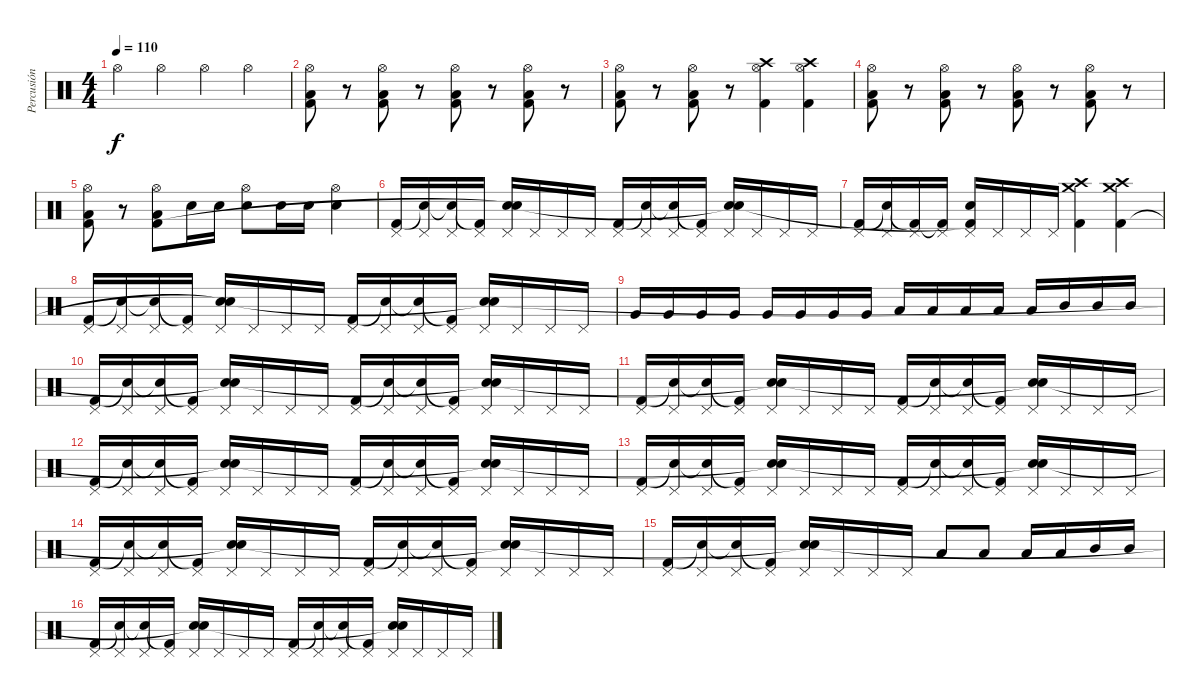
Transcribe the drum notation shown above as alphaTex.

\track ("Percusión" "Percusión") {instrument percussion}
\staff {score}
\articulation defaults
\ts (4 4)
\tempo 110
\clef neutral
\ks c "Hi-Hat (open)".4{dy f} "Hi-Hat (open)".4 "Hi-Hat (open)".4 "Hi-Hat (open)".4
|
("Hi-Hat (open)" "Low Floor Tom (hit)" "Kick (hit) 2").8 r.8 ("Hi-Hat (open)" "Low Floor Tom (hit)" "Kick (hit) 2").8 r.8 ("Hi-Hat (open)" "Low Floor Tom (hit)" "Kick (hit) 2").8 r.8 ("Hi-Hat (open)" "Low Floor Tom (hit)" "Kick (hit) 2").8 r.8 |
("Hi-Hat (open)" "Low Floor Tom (hit)" "Kick (hit) 2").8 r.8 ("Hi-Hat (open)" "Low Floor Tom (hit)" "Kick (hit) 2").8 r.8 ("Crash high (hit)" "Hi-Hat (open)" "Kick (hit) 2").4 ("Crash high (hit)" "Hi-Hat (open)" "Kick (hit) 2").4 |
("Hi-Hat (open)" "Low Floor Tom (hit)" "Kick (hit) 2").8 r.8 ("Hi-Hat (open)" "Low Floor Tom (hit)" "Kick (hit) 2").8 r.8 ("Hi-Hat (open)" "Low Floor Tom (hit)" "Kick (hit) 2").8 r.8 ("Hi-Hat (open)" "Low Floor Tom (hit)" "Kick (hit) 2").8 r.8 |
("Hi-Hat (open)" "Low Floor Tom (hit)" "Kick (hit) 2").8 r.8 ("Hi-Hat (open)" "Low Floor Tom (hit)" "Kick (hit) 2").8 "Electric Snare (hit)".16 "Electric Snare (hit)".16 ("Electric Snare (hit)" "Hi-Hat (open)").8 "Electric Snare (hit)".16 "Electric Snare (hit)".16 ("Electric Snare (hit)" "Hi-Hat (open)").4 |
("Pedal Hi-Hat (hit)" "Kick (hit) 2").16 ("Pedal Hi-Hat (hit)" "Snare (hit)"{t}).16 ("Pedal Hi-Hat (hit)" "Snare (hit)"{t}).16 ("Pedal Hi-Hat (hit)" "Kick (hit) 2"{t}).16 ("Pedal Hi-Hat (hit)" "Electric Snare (hit)" "Snare (hit)"{t}).16 "Pedal Hi-Hat (hit)".16 "Pedal Hi-Hat (hit)".16 "Pedal Hi-Hat (hit)".16 ("Pedal Hi-Hat (hit)" "Kick (hit) 2").16 ("Pedal Hi-Hat (hit)" "Snare (hit)"{t}).16 ("Pedal Hi-Hat (hit)" "Snare (hit)"{t}).16 ("Pedal Hi-Hat (hit)" "Kick (hit) 2"{t}).16 ("Pedal Hi-Hat (hit)" "Electric Snare (hit)" "Snare (hit)"{t}).16 "Pedal Hi-Hat (hit)".16 "Pedal Hi-Hat (hit)".16 "Pedal Hi-Hat (hit)".16 |
("Pedal Hi-Hat (hit)" "Kick (hit) 2").16 ("Pedal Hi-Hat (hit)" "Snare (hit)"{t}).16 ("Pedal Hi-Hat (hit)" "Kick (hit) 2"{t}).16 ("Pedal Hi-Hat (hit)" "Kick (hit) 2"{t}).16 ("Pedal Hi-Hat (hit)" "Electric Snare (hit)" "Kick (hit) 2"{t}).16 "Pedal Hi-Hat (hit)".16 "Pedal Hi-Hat (hit)".16 "Pedal Hi-Hat (hit)".16 ("Crash high (hit)" "Crash medium (hit)" "Kick (hit) 2").4 ("Crash high (hit)" "Crash medium (hit)" "Kick (hit) 2").4 |
("Pedal Hi-Hat (hit)" "Kick (hit) 2").16 ("Pedal Hi-Hat (hit)" "Snare (hit)"{t}).16 ("Pedal Hi-Hat (hit)" "Snare (hit)"{t}).16 ("Pedal Hi-Hat (hit)" "Kick (hit) 2"{t}).16 ("Pedal Hi-Hat (hit)" "Electric Snare (hit)" "Snare (hit)"{t}).16 "Pedal Hi-Hat (hit)".16 "Pedal Hi-Hat (hit)".16 "Pedal Hi-Hat (hit)".16 ("Pedal Hi-Hat (hit)" "Kick (hit) 2").16 ("Pedal Hi-Hat (hit)" "Snare (hit)"{t}).16 ("Pedal Hi-Hat (hit)" "Snare (hit)"{t}).16 ("Pedal Hi-Hat (hit)" "Kick (hit) 2"{t}).16 ("Pedal Hi-Hat (hit)" "Electric Snare (hit)" "Snare (hit)"{t}).16 "Pedal Hi-Hat (hit)".16 "Pedal Hi-Hat (hit)".16 "Pedal Hi-Hat (hit)".16 |
"Very Low Tom (hit)".16 "Very Low Tom (hit)".16 "Very Low Tom (hit)".16 "Very Low Tom (hit)".16 "Very Low Tom (hit)".16 "Very Low Tom (hit)".16 "Very Low Tom (hit)".16 "Very Low Tom (hit)".16 "Low Tom (hit)".16 "Low Tom (hit)".16 "Low Tom (hit)".16 "Low Tom (hit)".16 "Low Tom (hit)".16 "Mid Tom (hit)".16 "Mid Tom (hit)".16 "Mid Tom (hit)".16 |
("Pedal Hi-Hat (hit)" "Kick (hit) 2").16 ("Pedal Hi-Hat (hit)" "Snare (hit)"{t}).16 ("Pedal Hi-Hat (hit)" "Snare (hit)"{t}).16 ("Pedal Hi-Hat (hit)" "Kick (hit) 2"{t}).16 ("Pedal Hi-Hat (hit)" "Electric Snare (hit)" "Snare (hit)"{t}).16 "Pedal Hi-Hat (hit)".16 "Pedal Hi-Hat (hit)".16 "Pedal Hi-Hat (hit)".16 ("Pedal Hi-Hat (hit)" "Kick (hit) 2").16 ("Pedal Hi-Hat (hit)" "Snare (hit)"{t}).16 ("Pedal Hi-Hat (hit)" "Snare (hit)"{t}).16 ("Pedal Hi-Hat (hit)" "Kick (hit) 2"{t}).16 ("Pedal Hi-Hat (hit)" "Electric Snare (hit)" "Snare (hit)"{t}).16 "Pedal Hi-Hat (hit)".16 "Pedal Hi-Hat (hit)".16 "Pedal Hi-Hat (hit)".16 |
("Pedal Hi-Hat (hit)" "Kick (hit) 2").16 ("Pedal Hi-Hat (hit)" "Snare (hit)"{t}).16 ("Pedal Hi-Hat (hit)" "Snare (hit)"{t}).16 ("Pedal Hi-Hat (hit)" "Kick (hit) 2"{t}).16 ("Pedal Hi-Hat (hit)" "Electric Snare (hit)" "Snare (hit)"{t}).16 "Pedal Hi-Hat (hit)".16 "Pedal Hi-Hat (hit)".16 "Pedal Hi-Hat (hit)".16 ("Pedal Hi-Hat (hit)" "Kick (hit) 2").16 ("Pedal Hi-Hat (hit)" "Snare (hit)"{t}).16 ("Pedal Hi-Hat (hit)" "Snare (hit)"{t}).16 ("Pedal Hi-Hat (hit)" "Kick (hit) 2"{t}).16 ("Pedal Hi-Hat (hit)" "Electric Snare (hit)" "Snare (hit)"{t}).16 "Pedal Hi-Hat (hit)".16 "Pedal Hi-Hat (hit)".16 "Pedal Hi-Hat (hit)".16 |
("Pedal Hi-Hat (hit)" "Kick (hit) 2").16 ("Pedal Hi-Hat (hit)" "Snare (hit)"{t}).16 ("Pedal Hi-Hat (hit)" "Snare (hit)"{t}).16 ("Pedal Hi-Hat (hit)" "Kick (hit) 2"{t}).16 ("Pedal Hi-Hat (hit)" "Electric Snare (hit)" "Snare (hit)"{t}).16 "Pedal Hi-Hat (hit)".16 "Pedal Hi-Hat (hit)".16 "Pedal Hi-Hat (hit)".16 ("Pedal Hi-Hat (hit)" "Kick (hit) 2").16 ("Pedal Hi-Hat (hit)" "Snare (hit)"{t}).16 ("Pedal Hi-Hat (hit)" "Snare (hit)"{t}).16 ("Pedal Hi-Hat (hit)" "Kick (hit) 2"{t}).16 ("Pedal Hi-Hat (hit)" "Electric Snare (hit)" "Snare (hit)"{t}).16 "Pedal Hi-Hat (hit)".16 "Pedal Hi-Hat (hit)".16 "Pedal Hi-Hat (hit)".16 |
("Pedal Hi-Hat (hit)" "Kick (hit) 2").16 ("Pedal Hi-Hat (hit)" "Snare (hit)"{t}).16 ("Pedal Hi-Hat (hit)" "Snare (hit)"{t}).16 ("Pedal Hi-Hat (hit)" "Kick (hit) 2"{t}).16 ("Pedal Hi-Hat (hit)" "Electric Snare (hit)" "Snare (hit)"{t}).16 "Pedal Hi-Hat (hit)".16 "Pedal Hi-Hat (hit)".16 "Pedal Hi-Hat (hit)".16 ("Pedal Hi-Hat (hit)" "Kick (hit) 2").16 ("Pedal Hi-Hat (hit)" "Snare (hit)"{t}).16 ("Pedal Hi-Hat (hit)" "Snare (hit)"{t}).16 ("Pedal Hi-Hat (hit)" "Kick (hit) 2"{t}).16 ("Pedal Hi-Hat (hit)" "Electric Snare (hit)" "Snare (hit)"{t}).16 "Pedal Hi-Hat (hit)".16 "Pedal Hi-Hat (hit)".16 "Pedal Hi-Hat (hit)".16 |
("Pedal Hi-Hat (hit)" "Kick (hit) 2").16 ("Pedal Hi-Hat (hit)" "Snare (hit)"{t}).16 ("Pedal Hi-Hat (hit)" "Snare (hit)"{t}).16 ("Pedal Hi-Hat (hit)" "Kick (hit) 2"{t}).16 ("Pedal Hi-Hat (hit)" "Electric Snare (hit)" "Snare (hit)"{t}).16 "Pedal Hi-Hat (hit)".16 "Pedal Hi-Hat (hit)".16 "Pedal Hi-Hat (hit)".16 ("Pedal Hi-Hat (hit)" "Kick (hit) 2").16 ("Pedal Hi-Hat (hit)" "Snare (hit)"{t}).16 ("Pedal Hi-Hat (hit)" "Snare (hit)"{t}).16 ("Pedal Hi-Hat (hit)" "Kick (hit) 2"{t}).16 ("Pedal Hi-Hat (hit)" "Electric Snare (hit)" "Snare (hit)"{t}).16 "Pedal Hi-Hat (hit)".16 "Pedal Hi-Hat (hit)".16 "Pedal Hi-Hat (hit)".16 |
("Pedal Hi-Hat (hit)" "Kick (hit) 2").16 ("Pedal Hi-Hat (hit)" "Snare (hit)"{t}).16 ("Pedal Hi-Hat (hit)" "Snare (hit)"{t}).16 ("Pedal Hi-Hat (hit)" "Kick (hit) 2"{t}).16 ("Pedal Hi-Hat (hit)" "Electric Snare (hit)" "Snare (hit)"{t}).16 "Pedal Hi-Hat (hit)".16 "Pedal Hi-Hat (hit)".16 "Pedal Hi-Hat (hit)".16 "Low Tom (hit)".8 "Low Tom (hit)".8 "Low Tom (hit)".16 "Low Tom (hit)".16 "Mid Tom (hit)".16 "Mid Tom (hit)".16 |
("Pedal Hi-Hat (hit)" "Kick (hit) 2").16 ("Pedal Hi-Hat (hit)" "Snare (hit)"{t}).16 ("Pedal Hi-Hat (hit)" "Snare (hit)"{t}).16 ("Pedal Hi-Hat (hit)" "Kick (hit) 2"{t}).16 ("Pedal Hi-Hat (hit)" "Electric Snare (hit)" "Snare (hit)"{t}).16 "Pedal Hi-Hat (hit)".16 "Pedal Hi-Hat (hit)".16 "Pedal Hi-Hat (hit)".16 ("Pedal Hi-Hat (hit)" "Kick (hit) 2").16 ("Pedal Hi-Hat (hit)" "Snare (hit)"{t}).16 ("Pedal Hi-Hat (hit)" "Snare (hit)"{t}).16 ("Pedal Hi-Hat (hit)" "Kick (hit) 2"{t}).16 ("Pedal Hi-Hat (hit)" "Electric Snare (hit)" "Snare (hit)"{t}).16 "Pedal Hi-Hat (hit)".16 "Pedal Hi-Hat (hit)".16 "Pedal Hi-Hat (hit)".16
